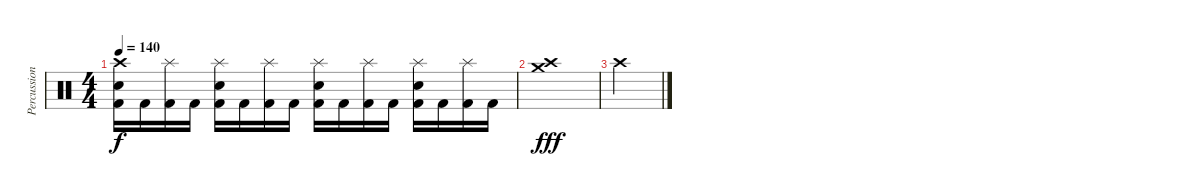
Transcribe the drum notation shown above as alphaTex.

\track ("Percussion" "Percussion") {instrument percussion}
\staff {score}
\articulation defaults
\ts (4 4)
\tempo 140
\clef neutral
\ks c
("Crash high (hit)" "Electric Snare (hit)" "Kick (hit) 2").16{dy f} "Kick (hit) 2".16 ("Splash (hit)" "Kick (hit) 2").16 "Kick (hit) 2".16 ("Splash (hit)" "Electric Snare (hit)" "Kick (hit) 2").16 "Kick (hit) 2".16 ("Splash (hit)" "Kick (hit) 2").16 "Kick (hit) 2".16 ("Splash (hit)" "Electric Snare (hit)" "Kick (hit) 2").16 "Kick (hit) 2".16 ("Splash (hit)" "Kick (hit) 2").16 "Kick (hit) 2".16 ("Splash (hit)" "Electric Snare (hit)" "Kick (hit) 2").16 "Kick (hit) 2".16 ("Splash (hit)" "Kick (hit) 2").16 "Kick (hit) 2".16 |
("Crash medium (hit)" "Crash high (hit)").1{dy fff} |
"Crash high (hit)".2
